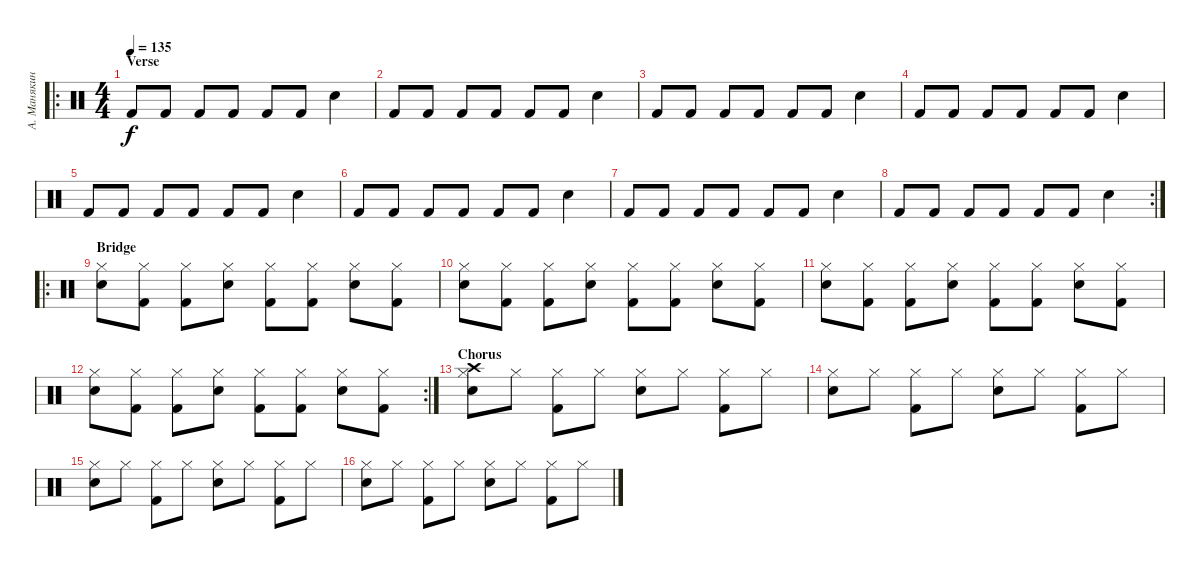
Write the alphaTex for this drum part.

\track ("А. Манякин" "А. Манякин") {instrument percussion}
\staff {score}
\articulation defaults
\ro
\ts (4 4)
\section ("" "Verse")
\tempo 135
\clef neutral
\ks c "Kick (hit) 2".8{dy f} "Kick (hit) 2".8 "Kick (hit) 2".8 "Kick (hit) 2".8 "Kick (hit) 2".8 "Kick (hit) 2".8 "Snare (hit) 2".4
|
"Kick (hit) 2".8 "Kick (hit) 2".8 "Kick (hit) 2".8 "Kick (hit) 2".8 "Kick (hit) 2".8 "Kick (hit) 2".8 "Snare (hit) 2".4 |
"Kick (hit) 2".8 "Kick (hit) 2".8 "Kick (hit) 2".8 "Kick (hit) 2".8 "Kick (hit) 2".8 "Kick (hit) 2".8 "Snare (hit) 2".4 |
"Kick (hit) 2".8 "Kick (hit) 2".8 "Kick (hit) 2".8 "Kick (hit) 2".8 "Kick (hit) 2".8 "Kick (hit) 2".8 "Snare (hit) 2".4 |
"Kick (hit) 2".8 "Kick (hit) 2".8 "Kick (hit) 2".8 "Kick (hit) 2".8 "Kick (hit) 2".8 "Kick (hit) 2".8 "Snare (hit) 2".4 |
"Kick (hit) 2".8 "Kick (hit) 2".8 "Kick (hit) 2".8 "Kick (hit) 2".8 "Kick (hit) 2".8 "Kick (hit) 2".8 "Snare (hit) 2".4 |
"Kick (hit) 2".8 "Kick (hit) 2".8 "Kick (hit) 2".8 "Kick (hit) 2".8 "Kick (hit) 2".8 "Kick (hit) 2".8 "Snare (hit) 2".4 |
\rc 2 "Kick (hit) 2".8 "Kick (hit) 2".8 "Kick (hit) 2".8 "Kick (hit) 2".8 "Kick (hit) 2".8 "Kick (hit) 2".8 "Snare (hit) 2".4
|
\ro
\section ("" "Bridge")
("Hi-Hat (closed)" "Snare (hit) 2").8 ("Hi-Hat (closed)" "Kick (hit) 2").8 ("Hi-Hat (closed)" "Kick (hit) 2").8 ("Hi-Hat (closed)" "Snare (hit) 2").8 ("Hi-Hat (closed)" "Kick (hit) 2").8 ("Hi-Hat (closed)" "Kick (hit) 2").8 ("Hi-Hat (closed)" "Snare (hit) 2").8 ("Hi-Hat (closed)" "Kick (hit) 2").8 |
("Hi-Hat (closed)" "Snare (hit) 2").8 ("Hi-Hat (closed)" "Kick (hit) 2").8 ("Hi-Hat (closed)" "Kick (hit) 2").8 ("Hi-Hat (closed)" "Snare (hit) 2").8 ("Hi-Hat (closed)" "Kick (hit) 2").8 ("Hi-Hat (closed)" "Kick (hit) 2").8 ("Hi-Hat (closed)" "Snare (hit) 2").8 ("Hi-Hat (closed)" "Kick (hit) 2").8 |
("Hi-Hat (closed)" "Snare (hit) 2").8 ("Hi-Hat (closed)" "Kick (hit) 2").8 ("Hi-Hat (closed)" "Kick (hit) 2").8 ("Hi-Hat (closed)" "Snare (hit) 2").8 ("Hi-Hat (closed)" "Kick (hit) 2").8 ("Hi-Hat (closed)" "Kick (hit) 2").8 ("Hi-Hat (closed)" "Snare (hit) 2").8 ("Hi-Hat (closed)" "Kick (hit) 2").8 |
\rc 2
("Hi-Hat (closed)" "Snare (hit) 2").8 ("Hi-Hat (closed)" "Kick (hit) 2").8 ("Hi-Hat (closed)" "Kick (hit) 2").8 ("Hi-Hat (closed)" "Snare (hit) 2").8 ("Hi-Hat (closed)" "Kick (hit) 2").8 ("Hi-Hat (closed)" "Kick (hit) 2").8 ("Hi-Hat (closed)" "Snare (hit) 2").8 ("Hi-Hat (closed)" "Kick (hit) 2").8 |
\section ("" "Chorus")
("Hi-Hat (closed)" "Snare (hit) 2" "Crash high (hit)").8 "Hi-Hat (closed)".8 ("Hi-Hat (closed)" "Kick (hit) 2").8 "Hi-Hat (closed)".8 ("Hi-Hat (closed)" "Snare (hit) 2").8 "Hi-Hat (closed)".8 ("Hi-Hat (closed)" "Kick (hit) 2").8 "Hi-Hat (closed)".8 |
("Hi-Hat (closed)" "Snare (hit) 2").8 "Hi-Hat (closed)".8 ("Hi-Hat (closed)" "Kick (hit) 2").8 "Hi-Hat (closed)".8 ("Hi-Hat (closed)" "Snare (hit) 2").8 "Hi-Hat (closed)".8 ("Hi-Hat (closed)" "Kick (hit) 2").8 "Hi-Hat (closed)".8 |
("Hi-Hat (closed)" "Snare (hit) 2").8 "Hi-Hat (closed)".8 ("Hi-Hat (closed)" "Kick (hit) 2").8 "Hi-Hat (closed)".8 ("Hi-Hat (closed)" "Snare (hit) 2").8 "Hi-Hat (closed)".8 ("Hi-Hat (closed)" "Kick (hit) 2").8 "Hi-Hat (closed)".8 |
("Hi-Hat (closed)" "Snare (hit) 2").8 "Hi-Hat (closed)".8 ("Hi-Hat (closed)" "Kick (hit) 2").8 "Hi-Hat (closed)".8 ("Hi-Hat (closed)" "Snare (hit) 2").8 "Hi-Hat (closed)".8 ("Hi-Hat (closed)" "Kick (hit) 2").8 "Hi-Hat (closed)".8
